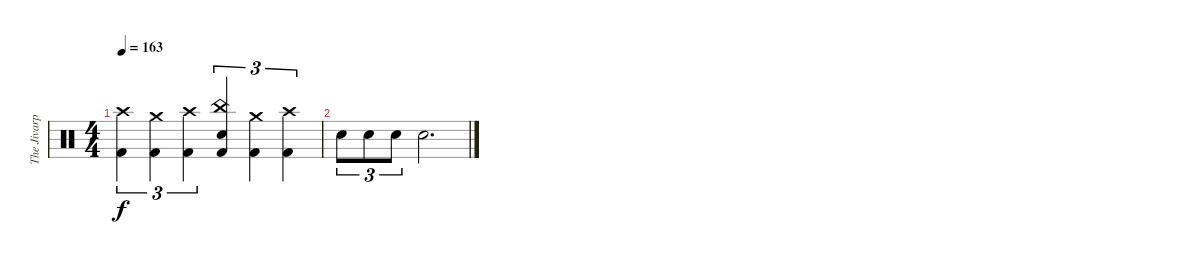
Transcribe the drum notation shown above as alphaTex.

\track ("The Jivarp" "The Jivarp") {instrument percussion}
\staff {score}
\articulation defaults
\ts (4 4)
\tempo 163
\clef neutral
\ks c
("Crash high (hit)" "Kick (hit) 2").4{tu (3 2) dy f} ("Crash medium (hit)" "Kick (hit) 2").4{tu (3 2)} ("Crash high (hit)" "Kick (hit) 2").4{tu (3 2)} ("China (hit)" "Electric Snare (hit)" "Kick (hit) 2").4{tu (3 2)} ("Crash medium (hit)" "Kick (hit) 2").4{tu (3 2)} ("Crash high (hit)" "Kick (hit) 2").4{tu (3 2)} |
"Electric Snare (hit)".8{tu (3 2)} "Electric Snare (hit)".8{tu (3 2)} "Electric Snare (hit)".8{tu (3 2)} "Electric Snare (hit)".2{d}
